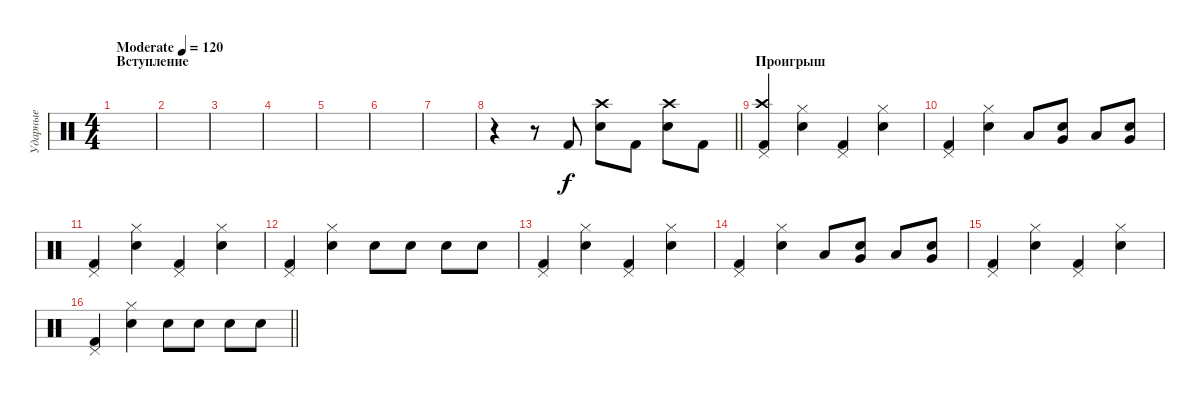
\track ("Ударные" "Ударные") {instrument percussion}
\staff {score}
\articulation defaults
\ts (4 4)
\section ("" "Вступление")
\tempo (120 "Moderate")
\clef neutral
\ks c
|
|
|
|
|
|
|
\barLineRight lightlight
r.4 r.8 "Kick (hit) 2".8 ("Crash high (hit)" "Snare (hit) 2").8 "Kick (hit) 2".8 ("Crash high (hit)" "Snare (hit) 2").8 "Kick (hit) 2".8 |
\section ("" "Проигрыш")
("Pedal Hi-Hat (hit)" "Crash high (hit)" "Kick (hit) 2").4 ("Hi-Hat (closed)" "Snare (hit) 2").4 ("Pedal Hi-Hat (hit)" "Kick (hit) 2").4 ("Hi-Hat (closed)" "Snare (hit) 2").4 |
("Pedal Hi-Hat (hit)" "Kick (hit) 2").4 ("Hi-Hat (closed)" "Snare (hit) 2").4 "Low Tom (hit)".8 ("Snare (hit) 2" "Very Low Tom (hit)").8 "Low Tom (hit)".8 ("Snare (hit) 2" "Very Low Tom (hit)").8 |
("Pedal Hi-Hat (hit)" "Kick (hit) 2").4 ("Hi-Hat (closed)" "Snare (hit) 2").4 ("Pedal Hi-Hat (hit)" "Kick (hit) 2").4 ("Hi-Hat (closed)" "Snare (hit) 2").4 |
("Pedal Hi-Hat (hit)" "Kick (hit) 2").4 ("Hi-Hat (closed)" "Snare (hit) 2").4 "Snare (hit) 2".8 "Snare (hit) 2".8 "Snare (hit) 2".8 "Snare (hit) 2".8 |
("Pedal Hi-Hat (hit)" "Kick (hit) 2").4 ("Hi-Hat (closed)" "Snare (hit) 2").4 ("Pedal Hi-Hat (hit)" "Kick (hit) 2").4 ("Hi-Hat (closed)" "Snare (hit) 2").4 |
("Pedal Hi-Hat (hit)" "Kick (hit) 2").4 ("Hi-Hat (closed)" "Snare (hit) 2").4 "Low Tom (hit)".8 ("Snare (hit) 2" "Very Low Tom (hit)").8 "Low Tom (hit)".8 ("Snare (hit) 2" "Very Low Tom (hit)").8 |
("Pedal Hi-Hat (hit)" "Kick (hit) 2").4 ("Hi-Hat (closed)" "Snare (hit) 2").4 ("Pedal Hi-Hat (hit)" "Kick (hit) 2").4 ("Hi-Hat (closed)" "Snare (hit) 2").4 |
\barLineRight lightlight
("Pedal Hi-Hat (hit)" "Kick (hit) 2").4 ("Hi-Hat (closed)" "Snare (hit) 2").4 "Snare (hit) 2".8 "Snare (hit) 2".8 "Snare (hit) 2".8 "Snare (hit) 2".8
